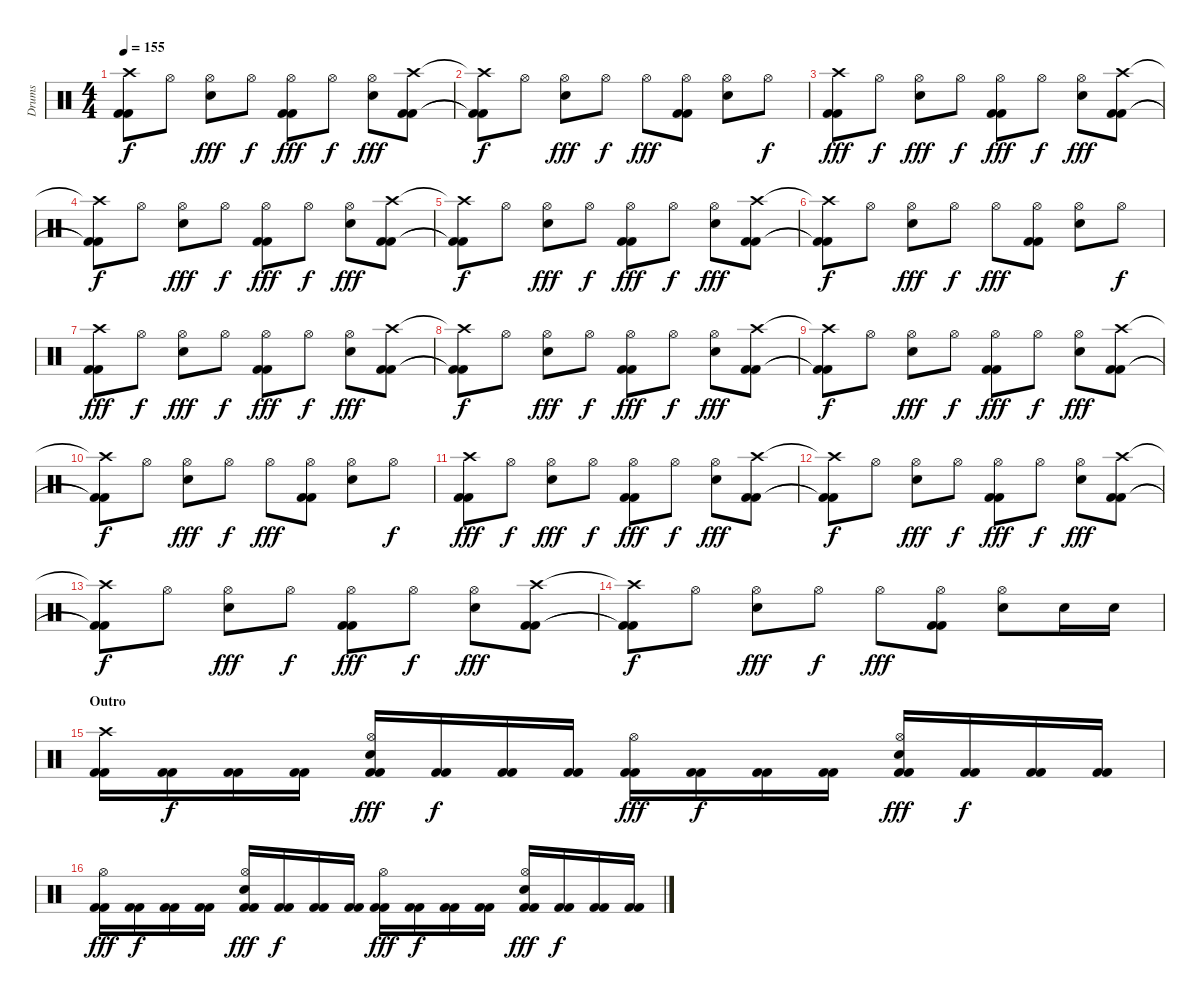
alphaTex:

\track ("Drums" "Drums") {instrument percussion}
\staff {score}
\articulation defaults
\ts (4 4)
\tempo 155
\clef neutral
\ks c
("Crash high (hit)"{t} "Kick (hit) 2"{t} "Kick (hit) 2"{t}).8{dy f} "Hi-Hat (open)".8 ("Hi-Hat (open)" "Snare (hit) 2").8{dy fff} "Hi-Hat (open)".8{dy f} ("Hi-Hat (open)" "Kick (hit) 2" "Kick (hit) 2").8{dy fff} "Hi-Hat (open)".8{dy f} ("Hi-Hat (open)" "Snare (hit) 2").8{dy fff} ("Crash high (hit)" "Kick (hit) 2" "Kick (hit) 2").8 |
("Crash high (hit)"{t} "Kick (hit) 2"{t} "Kick (hit) 2"{t}).8{dy f} "Hi-Hat (open)".8 ("Hi-Hat (open)" "Snare (hit) 2").8{dy fff} "Hi-Hat (open)".8{dy f} "Hi-Hat (open)".8{dy fff} ("Hi-Hat (open)" "Kick (hit) 2" "Kick (hit) 2").8 ("Hi-Hat (open)" "Snare (hit) 2").8 "Hi-Hat (open)".8{dy f} |
("Crash high (hit)" "Kick (hit) 2" "Kick (hit) 2").8{dy fff} "Hi-Hat (open)".8{dy f} ("Hi-Hat (open)" "Snare (hit) 2").8{dy fff} "Hi-Hat (open)".8{dy f} ("Hi-Hat (open)" "Kick (hit) 2" "Kick (hit) 2").8{dy fff} "Hi-Hat (open)".8{dy f} ("Hi-Hat (open)" "Snare (hit) 2").8{dy fff} ("Crash high (hit)" "Kick (hit) 2" "Kick (hit) 2").8 |
("Crash high (hit)"{t} "Kick (hit) 2"{t} "Kick (hit) 2"{t}).8{dy f} "Hi-Hat (open)".8 ("Hi-Hat (open)" "Snare (hit) 2").8{dy fff} "Hi-Hat (open)".8{dy f} ("Hi-Hat (open)" "Kick (hit) 2" "Kick (hit) 2").8{dy fff} "Hi-Hat (open)".8{dy f} ("Hi-Hat (open)" "Snare (hit) 2").8{dy fff} ("Crash high (hit)" "Kick (hit) 2" "Kick (hit) 2").8 |
("Crash high (hit)"{t} "Kick (hit) 2"{t} "Kick (hit) 2"{t}).8{dy f} "Hi-Hat (open)".8 ("Hi-Hat (open)" "Snare (hit) 2").8{dy fff} "Hi-Hat (open)".8{dy f} ("Hi-Hat (open)" "Kick (hit) 2" "Kick (hit) 2").8{dy fff} "Hi-Hat (open)".8{dy f} ("Hi-Hat (open)" "Snare (hit) 2").8{dy fff} ("Crash high (hit)" "Kick (hit) 2" "Kick (hit) 2").8 |
("Crash high (hit)"{t} "Kick (hit) 2"{t} "Kick (hit) 2"{t}).8{dy f} "Hi-Hat (open)".8 ("Hi-Hat (open)" "Snare (hit) 2").8{dy fff} "Hi-Hat (open)".8{dy f} "Hi-Hat (open)".8{dy fff} ("Hi-Hat (open)" "Kick (hit) 2" "Kick (hit) 2").8 ("Hi-Hat (open)" "Snare (hit) 2").8 "Hi-Hat (open)".8{dy f} |
("Crash high (hit)" "Kick (hit) 2" "Kick (hit) 2").8{dy fff} "Hi-Hat (open)".8{dy f} ("Hi-Hat (open)" "Snare (hit) 2").8{dy fff} "Hi-Hat (open)".8{dy f} ("Hi-Hat (open)" "Kick (hit) 2" "Kick (hit) 2").8{dy fff} "Hi-Hat (open)".8{dy f} ("Hi-Hat (open)" "Snare (hit) 2").8{dy fff} ("Crash high (hit)" "Kick (hit) 2" "Kick (hit) 2").8 |
("Crash high (hit)"{t} "Kick (hit) 2"{t} "Kick (hit) 2"{t}).8{dy f} "Hi-Hat (open)".8 ("Hi-Hat (open)" "Snare (hit) 2").8{dy fff} "Hi-Hat (open)".8{dy f} ("Hi-Hat (open)" "Kick (hit) 2" "Kick (hit) 2").8{dy fff} "Hi-Hat (open)".8{dy f} ("Hi-Hat (open)" "Snare (hit) 2").8{dy fff} ("Crash high (hit)" "Kick (hit) 2" "Kick (hit) 2").8 |
("Crash high (hit)"{t} "Kick (hit) 2"{t} "Kick (hit) 2"{t}).8{dy f} "Hi-Hat (open)".8 ("Hi-Hat (open)" "Snare (hit) 2").8{dy fff} "Hi-Hat (open)".8{dy f} ("Hi-Hat (open)" "Kick (hit) 2" "Kick (hit) 2").8{dy fff} "Hi-Hat (open)".8{dy f} ("Hi-Hat (open)" "Snare (hit) 2").8{dy fff} ("Crash high (hit)" "Kick (hit) 2" "Kick (hit) 2").8 |
("Crash high (hit)"{t} "Kick (hit) 2"{t} "Kick (hit) 2"{t}).8{dy f} "Hi-Hat (open)".8 ("Hi-Hat (open)" "Snare (hit) 2").8{dy fff} "Hi-Hat (open)".8{dy f} "Hi-Hat (open)".8{dy fff} ("Hi-Hat (open)" "Kick (hit) 2" "Kick (hit) 2").8 ("Hi-Hat (open)" "Snare (hit) 2").8 "Hi-Hat (open)".8{dy f} |
("Crash high (hit)" "Kick (hit) 2" "Kick (hit) 2").8{dy fff} "Hi-Hat (open)".8{dy f} ("Hi-Hat (open)" "Snare (hit) 2").8{dy fff} "Hi-Hat (open)".8{dy f} ("Hi-Hat (open)" "Kick (hit) 2" "Kick (hit) 2").8{dy fff} "Hi-Hat (open)".8{dy f} ("Hi-Hat (open)" "Snare (hit) 2").8{dy fff} ("Crash high (hit)" "Kick (hit) 2" "Kick (hit) 2").8 |
("Crash high (hit)"{t} "Kick (hit) 2"{t} "Kick (hit) 2"{t}).8{dy f} "Hi-Hat (open)".8 ("Hi-Hat (open)" "Snare (hit) 2").8{dy fff} "Hi-Hat (open)".8{dy f} ("Hi-Hat (open)" "Kick (hit) 2" "Kick (hit) 2").8{dy fff} "Hi-Hat (open)".8{dy f} ("Hi-Hat (open)" "Snare (hit) 2").8{dy fff} ("Crash high (hit)" "Kick (hit) 2" "Kick (hit) 2").8 |
("Crash high (hit)"{t} "Kick (hit) 2"{t} "Kick (hit) 2"{t}).8{dy f} "Hi-Hat (open)".8 ("Hi-Hat (open)" "Snare (hit) 2").8{dy fff} "Hi-Hat (open)".8{dy f} ("Hi-Hat (open)" "Kick (hit) 2" "Kick (hit) 2").8{dy fff} "Hi-Hat (open)".8{dy f} ("Hi-Hat (open)" "Snare (hit) 2").8{dy fff} ("Crash high (hit)" "Kick (hit) 2" "Kick (hit) 2").8 |
("Crash high (hit)"{t} "Kick (hit) 2"{t} "Kick (hit) 2"{t}).8{dy f} "Hi-Hat (open)".8 ("Hi-Hat (open)" "Snare (hit) 2").8{dy fff} "Hi-Hat (open)".8{dy f} "Hi-Hat (open)".8{dy fff} ("Hi-Hat (open)" "Kick (hit) 2" "Kick (hit) 2").8 ("Hi-Hat (open)" "Snare (hit) 2").8 "Snare (hit) 2".16 "Snare (hit) 2".16 |
\section ("" "Outro")
("Crash high (hit)" "Kick (hit) 2" "Kick (hit) 2").16 ("Kick (hit) 2" "Kick (hit) 2").16{dy f} ("Kick (hit) 2" "Kick (hit) 2").16 ("Kick (hit) 2" "Kick (hit) 2").16 ("Hi-Hat (open)" "Kick (hit) 2" "Kick (hit) 2" "Snare (hit) 2").16{dy fff} ("Kick (hit) 2" "Kick (hit) 2").16{dy f} ("Kick (hit) 2" "Kick (hit) 2").16 ("Kick (hit) 2" "Kick (hit) 2").16 ("Hi-Hat (open)" "Kick (hit) 2" "Kick (hit) 2").16{dy fff} ("Kick (hit) 2" "Kick (hit) 2").16{dy f} ("Kick (hit) 2" "Kick (hit) 2").16 ("Kick (hit) 2" "Kick (hit) 2").16 ("Hi-Hat (open)" "Kick (hit) 2" "Kick (hit) 2" "Snare (hit) 2").16{dy fff} ("Kick (hit) 2" "Kick (hit) 2").16{dy f} ("Kick (hit) 2" "Kick (hit) 2").16 ("Kick (hit) 2" "Kick (hit) 2").16 |
("Hi-Hat (open)" "Kick (hit) 2" "Kick (hit) 2").16{dy fff} ("Kick (hit) 2" "Kick (hit) 2").16{dy f} ("Kick (hit) 2" "Kick (hit) 2").16 ("Kick (hit) 2" "Kick (hit) 2").16 ("Hi-Hat (open)" "Kick (hit) 2" "Kick (hit) 2" "Snare (hit) 2").16{dy fff} ("Kick (hit) 2" "Kick (hit) 2").16{dy f} ("Kick (hit) 2" "Kick (hit) 2").16 ("Kick (hit) 2" "Kick (hit) 2").16 ("Hi-Hat (open)" "Kick (hit) 2" "Kick (hit) 2").16{dy fff} ("Kick (hit) 2" "Kick (hit) 2").16{dy f} ("Kick (hit) 2" "Kick (hit) 2").16 ("Kick (hit) 2" "Kick (hit) 2").16 ("Hi-Hat (open)" "Kick (hit) 2" "Kick (hit) 2" "Snare (hit) 2").16{dy fff} ("Kick (hit) 2" "Kick (hit) 2").16{dy f} ("Kick (hit) 2" "Kick (hit) 2").16 ("Kick (hit) 2" "Kick (hit) 2").16
